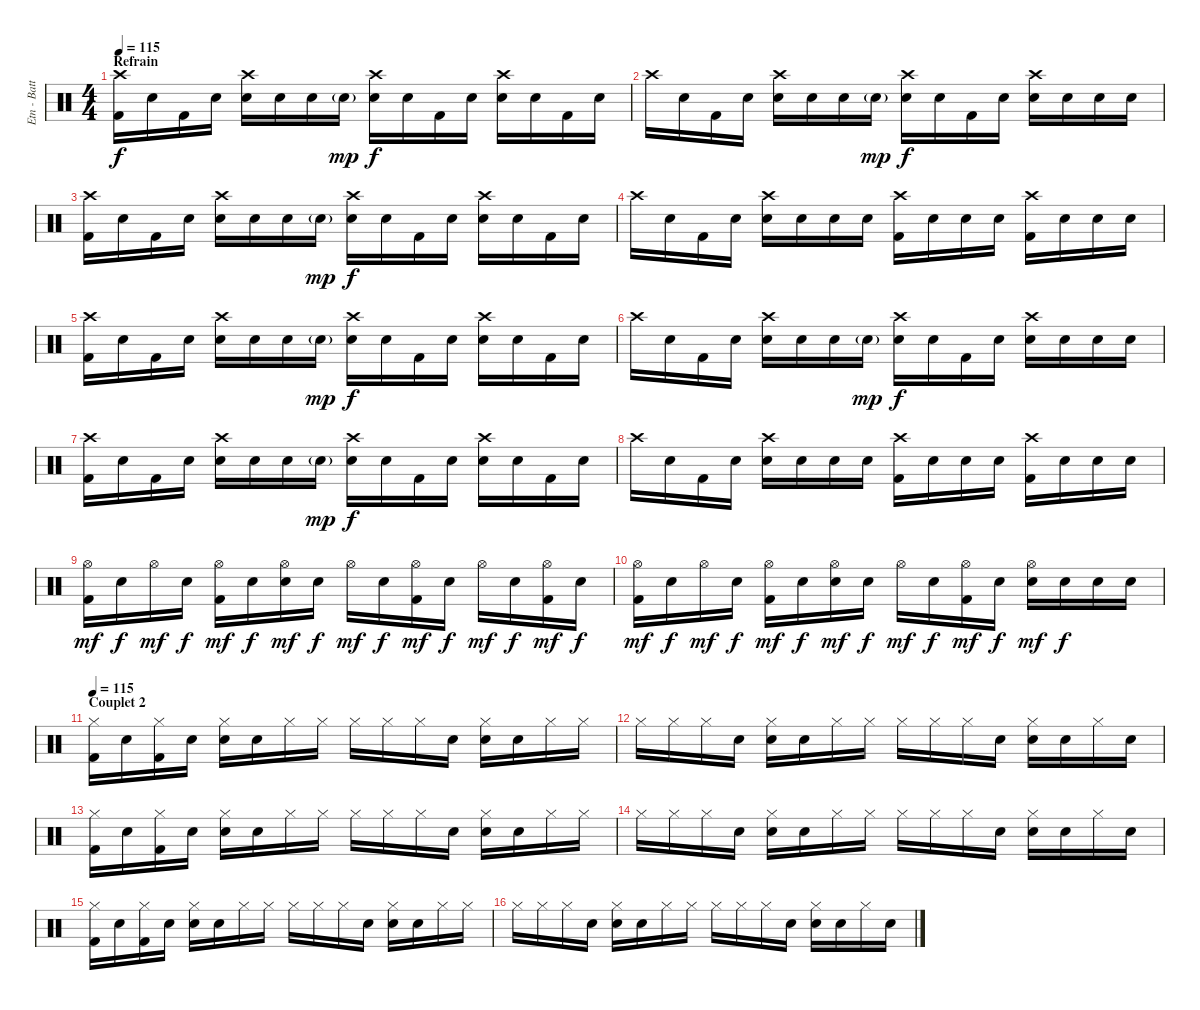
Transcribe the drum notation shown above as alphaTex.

\track ("Etn - Batterie" "Etn - Batt") {instrument percussion}
\staff {score}
\articulation defaults
\ts (4 4)
\section ("" "Refrain")
\tempo 115
\clef neutral
\ks c
("Crash high (hit)" "Kick (hit) 2").16{dy f volume 16 balance 8} "Snare (hit)".16 "Kick (hit) 2".16 "Snare (hit)".16 ("Crash high (hit)" "Electric Snare (hit)").16 "Snare (hit)".16 "Snare (hit)".16 "Electric Snare (hit)"{g}.16{dy mp} ("Crash high (hit)" "Electric Snare (hit)").16{dy f} "Snare (hit)".16 "Kick (hit) 2".16 "Snare (hit)".16 ("Crash high (hit)" "Electric Snare (hit)").16 "Snare (hit)".16 "Kick (hit) 2".16 "Snare (hit)".16 |
"Crash high (hit)".16 "Snare (hit)".16 "Kick (hit) 2".16 "Snare (hit)".16 ("Crash high (hit)" "Electric Snare (hit)").16 "Snare (hit)".16 "Snare (hit)".16 "Electric Snare (hit)"{g}.16{dy mp} ("Crash high (hit)" "Electric Snare (hit)").16{dy f} "Snare (hit)".16 "Kick (hit) 2".16 "Snare (hit)".16 ("Crash high (hit)" "Electric Snare (hit)").16 "Snare (hit)".16 "Electric Snare (hit)".16 "Electric Snare (hit)".16 |
("Crash high (hit)" "Kick (hit) 2").16 "Snare (hit)".16 "Kick (hit) 2".16 "Snare (hit)".16 ("Crash high (hit)" "Electric Snare (hit)").16 "Snare (hit)".16 "Snare (hit)".16 "Electric Snare (hit)"{g}.16{dy mp} ("Crash high (hit)" "Electric Snare (hit)").16{dy f} "Snare (hit)".16 "Kick (hit) 2".16 "Snare (hit)".16 ("Crash high (hit)" "Electric Snare (hit)").16 "Snare (hit)".16 "Kick (hit) 2".16 "Snare (hit)".16 |
"Crash high (hit)".16 "Snare (hit)".16 "Kick (hit) 2".16 "Snare (hit)".16 ("Crash high (hit)" "Electric Snare (hit)").16 "Snare (hit)".16 "Snare (hit)".16 "Snare (hit)".16 ("Crash high (hit)" "Kick (hit) 2").16 "Snare (hit)".16 "Electric Snare (hit)".16 "Snare (hit)".16 ("Crash high (hit)" "Kick (hit) 2").16 "Snare (hit)".16 "Electric Snare (hit)".16 "Snare (hit)".16 |
("Crash high (hit)" "Kick (hit) 2").16 "Snare (hit)".16 "Kick (hit) 2".16 "Snare (hit)".16 ("Crash high (hit)" "Electric Snare (hit)").16 "Snare (hit)".16 "Snare (hit)".16 "Electric Snare (hit)"{g}.16{dy mp} ("Crash high (hit)" "Electric Snare (hit)").16{dy f} "Snare (hit)".16 "Kick (hit) 2".16 "Snare (hit)".16 ("Crash high (hit)" "Electric Snare (hit)").16 "Snare (hit)".16 "Kick (hit) 2".16 "Snare (hit)".16 |
"Crash high (hit)".16 "Snare (hit)".16 "Kick (hit) 2".16 "Snare (hit)".16 ("Crash high (hit)" "Electric Snare (hit)").16 "Snare (hit)".16 "Snare (hit)".16 "Electric Snare (hit)"{g}.16{dy mp} ("Crash high (hit)" "Electric Snare (hit)").16{dy f} "Snare (hit)".16 "Kick (hit) 2".16 "Snare (hit)".16 ("Crash high (hit)" "Electric Snare (hit)").16 "Snare (hit)".16 "Electric Snare (hit)".16 "Electric Snare (hit)".16 |
("Crash high (hit)" "Kick (hit) 2").16 "Snare (hit)".16 "Kick (hit) 2".16 "Snare (hit)".16 ("Crash high (hit)" "Electric Snare (hit)").16 "Snare (hit)".16 "Snare (hit)".16 "Electric Snare (hit)"{g}.16{dy mp} ("Crash high (hit)" "Electric Snare (hit)").16{dy f} "Snare (hit)".16 "Kick (hit) 2".16 "Snare (hit)".16 ("Crash high (hit)" "Electric Snare (hit)").16 "Snare (hit)".16 "Kick (hit) 2".16 "Snare (hit)".16 |
"Crash high (hit)".16 "Snare (hit)".16 "Kick (hit) 2".16 "Snare (hit)".16 ("Crash high (hit)" "Electric Snare (hit)").16 "Snare (hit)".16 "Snare (hit)".16 "Snare (hit)".16 ("Crash high (hit)" "Kick (hit) 2").16 "Snare (hit)".16 "Electric Snare (hit)".16 "Snare (hit)".16 ("Crash high (hit)" "Kick (hit) 2").16 "Snare (hit)".16 "Electric Snare (hit)".16 "Snare (hit)".16 |
\section ("" "")
("Hi-Hat (open)" "Kick (hit) 2").16{dy mf} "Snare (hit)".16{dy f} "Hi-Hat (open)".16{dy mf} "Snare (hit)".16{dy f} ("Hi-Hat (open)" "Kick (hit) 2").16{dy mf} "Snare (hit)".16{dy f} ("Hi-Hat (open)" "Electric Snare (hit)").16{dy mf} "Snare (hit)".16{dy f} "Hi-Hat (open)".16{dy mf} "Snare (hit)".16{dy f} ("Hi-Hat (open)" "Kick (hit) 2").16{dy mf} "Snare (hit)".16{dy f} "Hi-Hat (open)".16{dy mf} "Snare (hit)".16{dy f} ("Hi-Hat (open)" "Kick (hit) 2").16{dy mf} "Snare (hit)".16{dy f} |
("Hi-Hat (open)" "Kick (hit) 2").16{dy mf} "Snare (hit)".16{dy f} "Hi-Hat (open)".16{dy mf} "Snare (hit)".16{dy f} ("Hi-Hat (open)" "Kick (hit) 2").16{dy mf} "Snare (hit)".16{dy f} ("Hi-Hat (open)" "Electric Snare (hit)").16{dy mf} "Snare (hit)".16{dy f} "Hi-Hat (open)".16{dy mf} "Snare (hit)".16{dy f} ("Hi-Hat (open)" "Kick (hit) 2").16{dy mf} "Snare (hit)".16{dy f} ("Hi-Hat (open)" "Electric Snare (hit)").16{dy mf} "Snare (hit)".16{dy f} "Snare (hit)".16 "Snare (hit)".16 |
\section ("" "Couplet 2")
\tempo 115
("Hi-Hat (closed)" "Kick (hit) 2").16{volume 16 balance 8} "Snare (hit)".16 ("Hi-Hat (closed)" "Kick (hit) 2").16 "Snare (hit)".16 ("Hi-Hat (closed)" "Electric Snare (hit)").16 "Snare (hit)".16 "Hi-Hat (closed)".16 "Hi-Hat (closed)".16 "Hi-Hat (closed)".16 "Hi-Hat (closed)".16 "Hi-Hat (closed)".16 "Snare (hit)".16 ("Hi-Hat (closed)" "Electric Snare (hit)").16 "Snare (hit)".16 "Hi-Hat (closed)".16 "Hi-Hat (closed)".16 |
"Hi-Hat (closed)".16 "Hi-Hat (closed)".16 "Hi-Hat (closed)".16 "Snare (hit)".16 ("Hi-Hat (closed)" "Electric Snare (hit)").16 "Snare (hit)".16 "Hi-Hat (closed)".16 "Hi-Hat (closed)".16 "Hi-Hat (closed)".16 "Hi-Hat (closed)".16 "Hi-Hat (closed)".16 "Snare (hit)".16 ("Hi-Hat (closed)" "Electric Snare (hit)").16 "Snare (hit)".16 "Hi-Hat (closed)".16 "Snare (hit)".16 |
("Hi-Hat (closed)" "Kick (hit) 2").16 "Snare (hit)".16 ("Hi-Hat (closed)" "Kick (hit) 2").16 "Snare (hit)".16 ("Hi-Hat (closed)" "Electric Snare (hit)").16 "Snare (hit)".16 "Hi-Hat (closed)".16 "Hi-Hat (closed)".16 "Hi-Hat (closed)".16 "Hi-Hat (closed)".16 "Hi-Hat (closed)".16 "Snare (hit)".16 ("Hi-Hat (closed)" "Electric Snare (hit)").16 "Snare (hit)".16 "Hi-Hat (closed)".16 "Hi-Hat (closed)".16 |
"Hi-Hat (closed)".16 "Hi-Hat (closed)".16 "Hi-Hat (closed)".16 "Snare (hit)".16 ("Hi-Hat (closed)" "Electric Snare (hit)").16 "Snare (hit)".16 "Hi-Hat (closed)".16 "Hi-Hat (closed)".16 "Hi-Hat (closed)".16 "Hi-Hat (closed)".16 "Hi-Hat (closed)".16 "Snare (hit)".16 ("Hi-Hat (closed)" "Electric Snare (hit)").16 "Snare (hit)".16 "Hi-Hat (closed)".16 "Snare (hit)".16 |
("Hi-Hat (closed)" "Kick (hit) 2").16 "Snare (hit)".16 ("Hi-Hat (closed)" "Kick (hit) 2").16 "Snare (hit)".16 ("Hi-Hat (closed)" "Electric Snare (hit)").16 "Snare (hit)".16 "Hi-Hat (closed)".16 "Hi-Hat (closed)".16 "Hi-Hat (closed)".16 "Hi-Hat (closed)".16 "Hi-Hat (closed)".16 "Snare (hit)".16 ("Hi-Hat (closed)" "Electric Snare (hit)").16 "Snare (hit)".16 "Hi-Hat (closed)".16 "Hi-Hat (closed)".16 |
"Hi-Hat (closed)".16 "Hi-Hat (closed)".16 "Hi-Hat (closed)".16 "Snare (hit)".16 ("Hi-Hat (closed)" "Electric Snare (hit)").16 "Snare (hit)".16 "Hi-Hat (closed)".16 "Hi-Hat (closed)".16 "Hi-Hat (closed)".16 "Hi-Hat (closed)".16 "Hi-Hat (closed)".16 "Snare (hit)".16 ("Hi-Hat (closed)" "Electric Snare (hit)").16 "Snare (hit)".16 "Hi-Hat (closed)".16 "Snare (hit)".16
